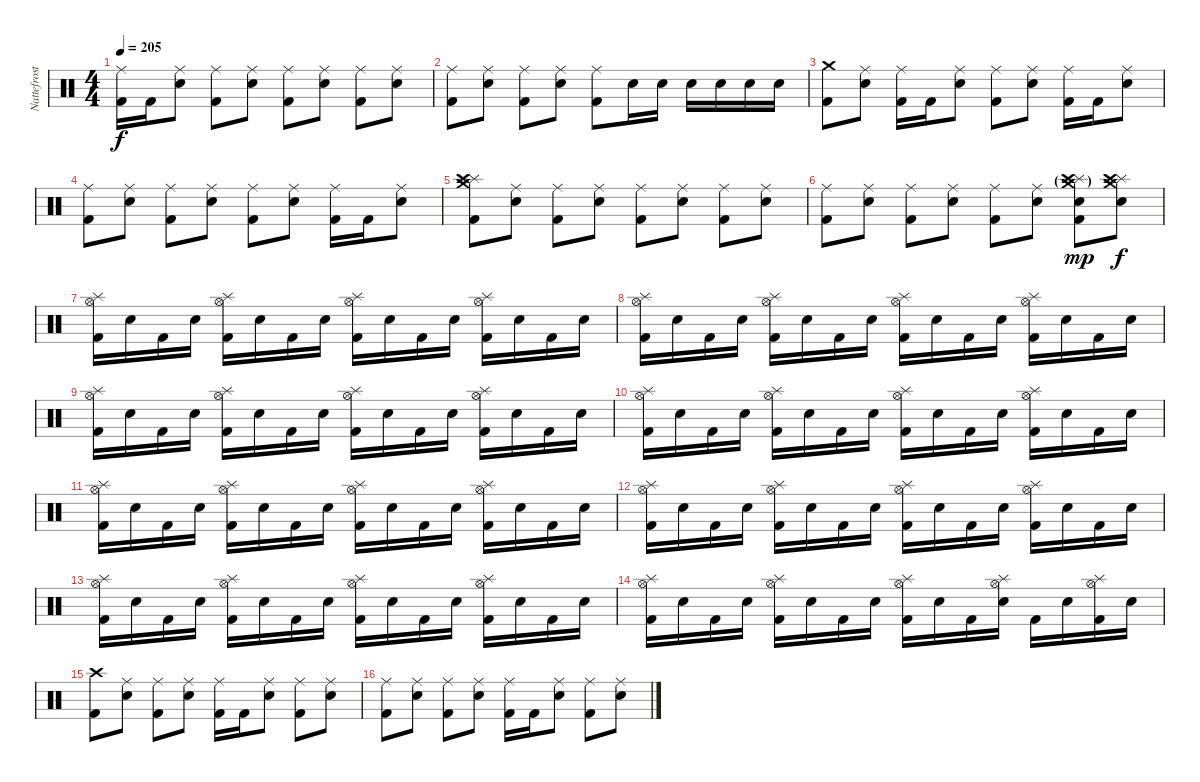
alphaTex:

\track ("Nattefrost" "Nattefrost") {instrument percussion}
\staff {score}
\articulation defaults
\ts (4 4)
\tempo 205
\clef neutral
\ks c
("Ride (middle)" "Kick (hit) 2").16{dy f} "Kick (hit) 2".16 ("Ride (middle)" "Snare (hit) 2").8 ("Ride (middle)" "Kick (hit) 2").8 ("Ride (middle)" "Snare (hit) 2").8 ("Ride (middle)" "Kick (hit) 2").8 ("Ride (middle)" "Snare (hit) 2").8 ("Ride (middle)" "Kick (hit) 2").8 ("Ride (middle)" "Snare (hit) 2").8 |
("Ride (middle)" "Kick (hit) 2").8 ("Ride (middle)" "Snare (hit) 2").8 ("Ride (middle)" "Kick (hit) 2").8 ("Ride (middle)" "Snare (hit) 2").8 ("Ride (middle)" "Kick (hit) 2").8 "Snare (hit) 2".16 "Snare (hit) 2".16 "Snare (hit) 2".16 "Snare (hit) 2".16 "Snare (hit) 2".16 "Snare (hit) 2".16 |
("Crash medium (hit)" "Kick (hit) 2").8 ("Ride (middle)" "Snare (hit) 2").8 ("Ride (middle)" "Kick (hit) 2").16 "Kick (hit) 2".16 ("Ride (middle)" "Snare (hit) 2").8 ("Ride (middle)" "Kick (hit) 2").8 ("Ride (middle)" "Snare (hit) 2").8 ("Ride (middle)" "Kick (hit) 2").16 "Kick (hit) 2".16 ("Ride (middle)" "Snare (hit) 2").8 |
("Ride (middle)" "Kick (hit) 2").8 ("Ride (middle)" "Snare (hit) 2").8 ("Ride (middle)" "Kick (hit) 2").8 ("Ride (middle)" "Snare (hit) 2").8 ("Ride (middle)" "Kick (hit) 2").8 ("Ride (middle)" "Snare (hit) 2").8 ("Ride (middle)" "Kick (hit) 2").16 "Kick (hit) 2".16 ("Ride (middle)" "Snare (hit) 2").8 |
("Splash (hit)" "Crash medium (hit)" "Crash high (hit)" "Kick (hit) 2").8 ("Ride (middle)" "Snare (hit) 2").8 ("Ride (middle)" "Kick (hit) 2").8 ("Ride (middle)" "Snare (hit) 2").8 ("Ride (middle)" "Kick (hit) 2").8 ("Ride (middle)" "Snare (hit) 2").8 ("Ride (middle)" "Kick (hit) 2").8 ("Ride (middle)" "Snare (hit) 2").8 |
("Ride (middle)" "Kick (hit) 2").8 ("Ride (middle)" "Snare (hit) 2").8 ("Ride (middle)" "Kick (hit) 2").8 ("Ride (middle)" "Snare (hit) 2").8 ("Ride (middle)" "Kick (hit) 2").8 ("Ride (middle)" "Snare (hit) 2").8 ("Splash (hit)"{g} "Crash medium (hit)"{g} "Crash high (hit)"{g} "Snare (hit) 2" "Kick (hit) 2").8{dy mp} ("Splash (hit)" "Crash medium (hit)" "Crash high (hit)" "Snare (hit) 2").8{dy f} |
("Splash (hit)" "Hi-Hat (open)" "Kick (hit) 2").16 "Snare (hit) 2".16 "Kick (hit) 2".16 "Snare (hit) 2".16 ("Splash (hit)" "Hi-Hat (open)" "Kick (hit) 2").16 "Snare (hit) 2".16 "Kick (hit) 2".16 "Snare (hit) 2".16 ("Splash (hit)" "Hi-Hat (open)" "Kick (hit) 2").16 "Snare (hit) 2".16 "Kick (hit) 2".16 "Snare (hit) 2".16 ("Splash (hit)" "Hi-Hat (open)" "Kick (hit) 2").16 "Snare (hit) 2".16 "Kick (hit) 2".16 "Snare (hit) 2".16 |
("Splash (hit)" "Hi-Hat (open)" "Kick (hit) 2").16 "Snare (hit) 2".16 "Kick (hit) 2".16 "Snare (hit) 2".16 ("Splash (hit)" "Hi-Hat (open)" "Kick (hit) 2").16 "Snare (hit) 2".16 "Kick (hit) 2".16 "Snare (hit) 2".16 ("Splash (hit)" "Hi-Hat (open)" "Kick (hit) 2").16 "Snare (hit) 2".16 "Kick (hit) 2".16 "Snare (hit) 2".16 ("Splash (hit)" "Hi-Hat (open)" "Kick (hit) 2").16 "Snare (hit) 2".16 "Kick (hit) 2".16 "Snare (hit) 2".16 |
("Splash (hit)" "Hi-Hat (open)" "Kick (hit) 2").16 "Snare (hit) 2".16 "Kick (hit) 2".16 "Snare (hit) 2".16 ("Splash (hit)" "Hi-Hat (open)" "Kick (hit) 2").16 "Snare (hit) 2".16 "Kick (hit) 2".16 "Snare (hit) 2".16 ("Splash (hit)" "Hi-Hat (open)" "Kick (hit) 2").16 "Snare (hit) 2".16 "Kick (hit) 2".16 "Snare (hit) 2".16 ("Splash (hit)" "Hi-Hat (open)" "Kick (hit) 2").16 "Snare (hit) 2".16 "Kick (hit) 2".16 "Snare (hit) 2".16 |
("Splash (hit)" "Hi-Hat (open)" "Kick (hit) 2").16 "Snare (hit) 2".16 "Kick (hit) 2".16 "Snare (hit) 2".16 ("Splash (hit)" "Hi-Hat (open)" "Kick (hit) 2").16 "Snare (hit) 2".16 "Kick (hit) 2".16 "Snare (hit) 2".16 ("Splash (hit)" "Hi-Hat (open)" "Kick (hit) 2").16 "Snare (hit) 2".16 "Kick (hit) 2".16 "Snare (hit) 2".16 ("Splash (hit)" "Hi-Hat (open)" "Kick (hit) 2").16 "Snare (hit) 2".16 "Kick (hit) 2".16 "Snare (hit) 2".16 |
("Splash (hit)" "Hi-Hat (open)" "Kick (hit) 2").16 "Snare (hit) 2".16 "Kick (hit) 2".16 "Snare (hit) 2".16 ("Splash (hit)" "Hi-Hat (open)" "Kick (hit) 2").16 "Snare (hit) 2".16 "Kick (hit) 2".16 "Snare (hit) 2".16 ("Splash (hit)" "Hi-Hat (open)" "Kick (hit) 2").16 "Snare (hit) 2".16 "Kick (hit) 2".16 "Snare (hit) 2".16 ("Splash (hit)" "Hi-Hat (open)" "Kick (hit) 2").16 "Snare (hit) 2".16 "Kick (hit) 2".16 "Snare (hit) 2".16 |
("Splash (hit)" "Hi-Hat (open)" "Kick (hit) 2").16 "Snare (hit) 2".16 "Kick (hit) 2".16 "Snare (hit) 2".16 ("Splash (hit)" "Hi-Hat (open)" "Kick (hit) 2").16 "Snare (hit) 2".16 "Kick (hit) 2".16 "Snare (hit) 2".16 ("Splash (hit)" "Hi-Hat (open)" "Kick (hit) 2").16 "Snare (hit) 2".16 "Kick (hit) 2".16 "Snare (hit) 2".16 ("Splash (hit)" "Hi-Hat (open)" "Kick (hit) 2").16 "Snare (hit) 2".16 "Kick (hit) 2".16 "Snare (hit) 2".16 |
("Splash (hit)" "Hi-Hat (open)" "Kick (hit) 2").16 "Snare (hit) 2".16 "Kick (hit) 2".16 "Snare (hit) 2".16 ("Splash (hit)" "Hi-Hat (open)" "Kick (hit) 2").16 "Snare (hit) 2".16 "Kick (hit) 2".16 "Snare (hit) 2".16 ("Splash (hit)" "Hi-Hat (open)" "Kick (hit) 2").16 "Snare (hit) 2".16 "Kick (hit) 2".16 "Snare (hit) 2".16 ("Splash (hit)" "Hi-Hat (open)" "Kick (hit) 2").16 "Snare (hit) 2".16 "Kick (hit) 2".16 "Snare (hit) 2".16 |
("Splash (hit)" "Hi-Hat (open)" "Kick (hit) 2").16 "Snare (hit) 2".16 "Kick (hit) 2".16 "Snare (hit) 2".16 ("Splash (hit)" "Hi-Hat (open)" "Kick (hit) 2").16 "Snare (hit) 2".16 "Kick (hit) 2".16 "Snare (hit) 2".16 ("Splash (hit)" "Hi-Hat (open)" "Kick (hit) 2").16 "Snare (hit) 2".16 "Kick (hit) 2".16 ("Splash (hit)" "Hi-Hat (open)" "Snare (hit) 2").16 "Kick (hit) 2".16 "Snare (hit) 2".16 ("Splash (hit)" "Hi-Hat (open)" "Kick (hit) 2").16 "Snare (hit) 2".16 |
("Crash high (hit)" "Kick (hit) 2").8 ("Ride (middle)" "Snare (hit) 2").8 ("Ride (middle)" "Kick (hit) 2").8 ("Ride (middle)" "Snare (hit) 2").8 ("Ride (middle)" "Kick (hit) 2").16 "Kick (hit) 2".16 ("Ride (middle)" "Snare (hit) 2").8 ("Ride (middle)" "Kick (hit) 2").8 ("Ride (middle)" "Snare (hit) 2").8 |
("Ride (middle)" "Kick (hit) 2").8 ("Ride (middle)" "Snare (hit) 2").8 ("Ride (middle)" "Kick (hit) 2").8 ("Ride (middle)" "Snare (hit) 2").8 ("Ride (middle)" "Kick (hit) 2").16 "Kick (hit) 2".16 ("Ride (middle)" "Snare (hit) 2").8 ("Ride (middle)" "Kick (hit) 2").8 ("Ride (middle)" "Snare (hit) 2").8
